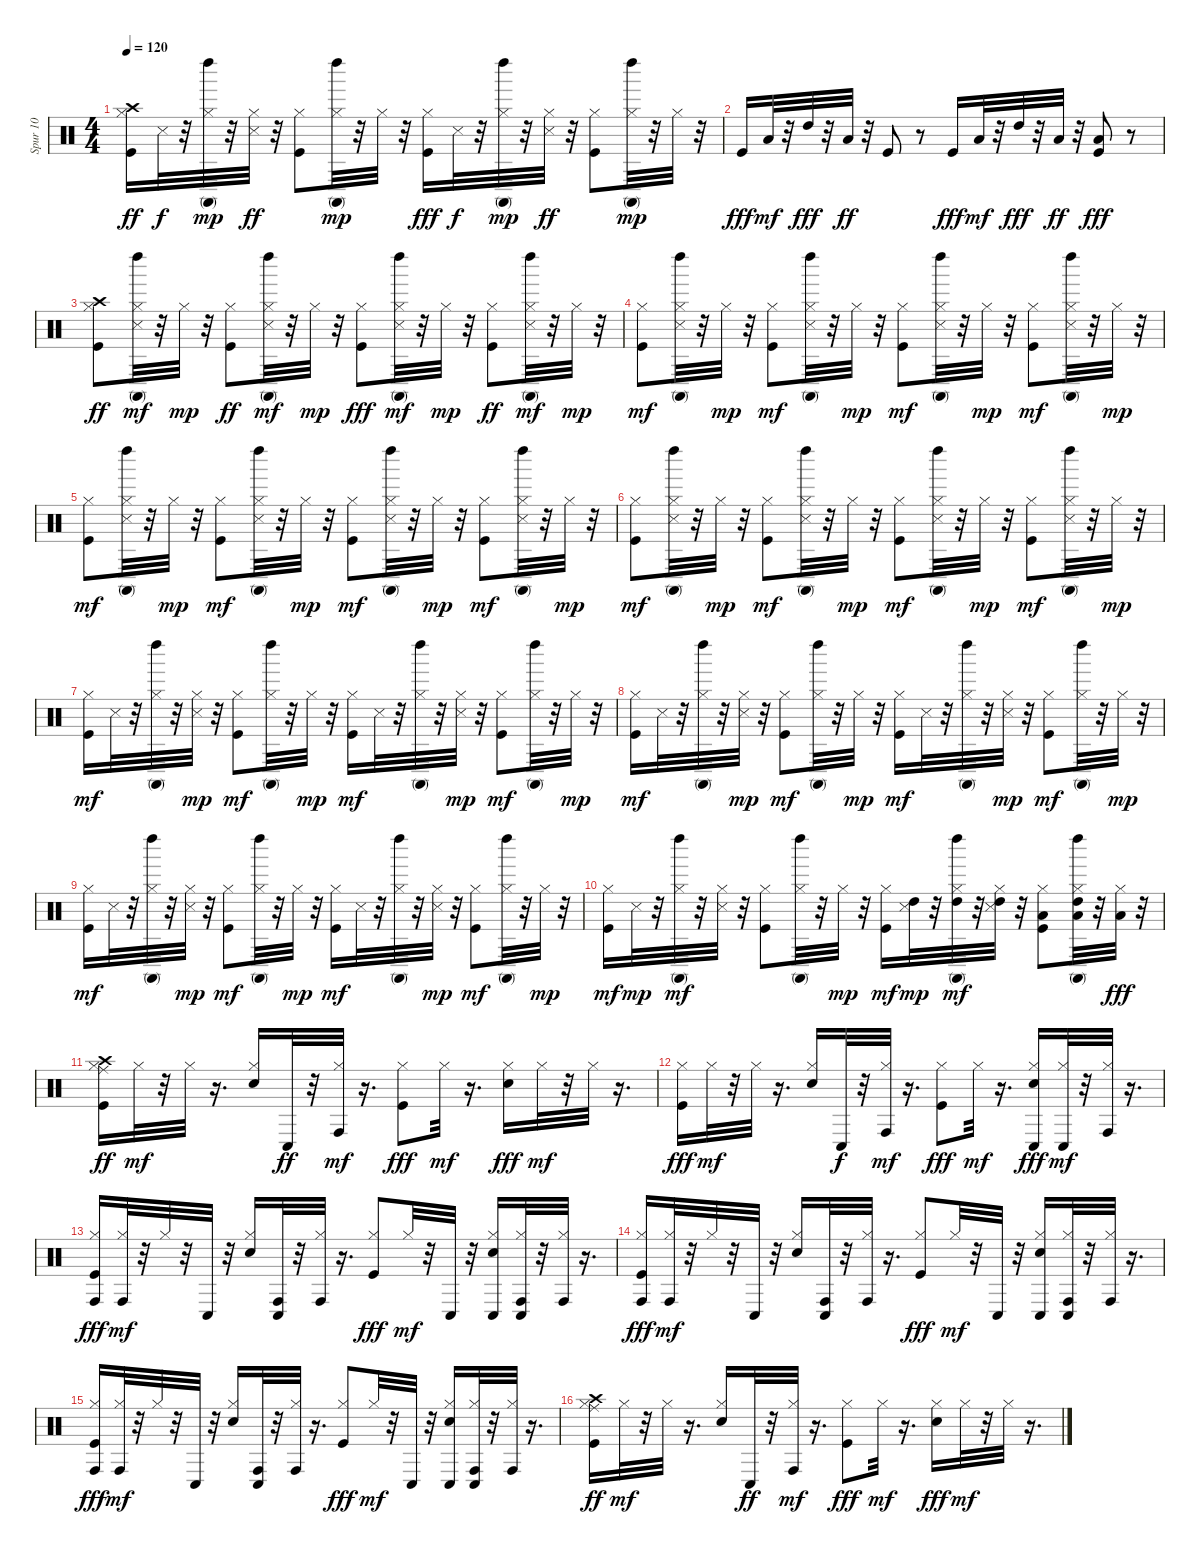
\track ("Spur 10" "Spur 10") {instrument percussion}
\staff {score}
\articulation defaults
\ts (4 4)
\tempo 120
\clef neutral
\ks c
("Kick (hit)" "Hi-Hat (closed)" "Crash high (hit)").16{dy ff} "Snare (side stick) 3".32{dy f} r.32 ("Hi-Hat (closed)" "Conga high (mute)" "Left Maraca (hit)").32{dy mp} r.32 ("Hi-Hat (closed)" "Snare (side stick) 3").32{dy ff} r.32 ("Kick (hit)" "Hi-Hat (closed)").8 ("Hi-Hat (closed)" "Conga high (mute)" "Left Maraca (hit)").32{dy mp} r.32 "Hi-Hat (closed)".32 r.32 ("Kick (hit)" "Hi-Hat (closed)").16{dy fff} "Snare (side stick) 3".32{dy f} r.32 ("Hi-Hat (closed)" "Conga high (mute)" "Left Maraca (hit)").32{dy mp} r.32 ("Hi-Hat (closed)" "Snare (side stick) 3").32{dy ff} r.32 ("Kick (hit)" "Hi-Hat (closed)").8 ("Hi-Hat (closed)" "Conga high (mute)" "Left Maraca (hit)").32{dy mp} r.32 "Hi-Hat (closed)".32 r.32 |
"Kick (hit)".16{dy fff} "Low Tom (hit)".32{dy mf} r.32 "High Tom (hit)".32{dy fff} r.32 "Low Tom (hit)".32{dy ff} r.32 "Kick (hit)".8 r.8 "Kick (hit)".16{dy fff} "Low Tom (hit)".32{dy mf} r.32 "High Tom (hit)".32{dy fff} r.32 "Low Tom (hit)".32{dy ff} r.32 ("Kick (hit)" "Low Floor Tom (hit)").8{dy fff} r.8 |
("Kick (hit)" "Hi-Hat (closed)" "Crash high (hit)").8{dy ff} ("Hi-Hat (closed)" "Snare (side stick) 3" "Conga high (mute)" "Left Maraca (hit)").32{dy mf} r.32 "Hi-Hat (closed)".32{dy mp} r.32 ("Kick (hit)" "Hi-Hat (closed)").8{dy ff} ("Hi-Hat (closed)" "Snare (side stick) 3" "Conga high (mute)" "Left Maraca (hit)").32{dy mf} r.32 "Hi-Hat (closed)".32{dy mp} r.32 ("Kick (hit)" "Hi-Hat (closed)").8{dy fff} ("Hi-Hat (closed)" "Snare (side stick) 3" "Conga high (mute)" "Left Maraca (hit)").32{dy mf} r.32 "Hi-Hat (closed)".32{dy mp} r.32 ("Kick (hit)" "Hi-Hat (closed)").8{dy ff} ("Hi-Hat (closed)" "Snare (side stick) 3" "Conga high (mute)" "Left Maraca (hit)").32{dy mf} r.32 "Hi-Hat (closed)".32{dy mp} r.32 |
("Kick (hit)" "Hi-Hat (closed)").8{dy mf} ("Hi-Hat (closed)" "Snare (side stick) 3" "Conga high (mute)" "Left Maraca (hit)").32 r.32 "Hi-Hat (closed)".32{dy mp} r.32 ("Kick (hit)" "Hi-Hat (closed)").8{dy mf} ("Hi-Hat (closed)" "Snare (side stick) 3" "Conga high (mute)" "Left Maraca (hit)").32 r.32 "Hi-Hat (closed)".32{dy mp} r.32 ("Kick (hit)" "Hi-Hat (closed)").8{dy mf} ("Hi-Hat (closed)" "Snare (side stick) 3" "Conga high (mute)" "Left Maraca (hit)").32 r.32 "Hi-Hat (closed)".32{dy mp} r.32 ("Kick (hit)" "Hi-Hat (closed)").8{dy mf} ("Hi-Hat (closed)" "Snare (side stick) 3" "Conga high (mute)" "Left Maraca (hit)").32 r.32 "Hi-Hat (closed)".32{dy mp} r.32 |
("Kick (hit)" "Hi-Hat (closed)").8{dy mf} ("Hi-Hat (closed)" "Snare (side stick) 3" "Conga high (mute)" "Left Maraca (hit)").32 r.32 "Hi-Hat (closed)".32{dy mp} r.32 ("Kick (hit)" "Hi-Hat (closed)").8{dy mf} ("Hi-Hat (closed)" "Snare (side stick) 3" "Conga high (mute)" "Left Maraca (hit)").32 r.32 "Hi-Hat (closed)".32{dy mp} r.32 ("Kick (hit)" "Hi-Hat (closed)").8{dy mf} ("Hi-Hat (closed)" "Snare (side stick) 3" "Conga high (mute)" "Left Maraca (hit)").32 r.32 "Hi-Hat (closed)".32{dy mp} r.32 ("Kick (hit)" "Hi-Hat (closed)").8{dy mf} ("Hi-Hat (closed)" "Snare (side stick) 3" "Conga high (mute)" "Left Maraca (hit)").32 r.32 "Hi-Hat (closed)".32{dy mp} r.32 |
("Kick (hit)" "Hi-Hat (closed)").8{dy mf} ("Hi-Hat (closed)" "Snare (side stick) 3" "Conga high (mute)" "Left Maraca (hit)").32 r.32 "Hi-Hat (closed)".32{dy mp} r.32 ("Kick (hit)" "Hi-Hat (closed)").8{dy mf} ("Hi-Hat (closed)" "Snare (side stick) 3" "Conga high (mute)" "Left Maraca (hit)").32 r.32 "Hi-Hat (closed)".32{dy mp} r.32 ("Kick (hit)" "Hi-Hat (closed)").8{dy mf} ("Hi-Hat (closed)" "Snare (side stick) 3" "Conga high (mute)" "Left Maraca (hit)").32 r.32 "Hi-Hat (closed)".32{dy mp} r.32 ("Kick (hit)" "Hi-Hat (closed)").8{dy mf} ("Hi-Hat (closed)" "Snare (side stick) 3" "Conga high (mute)" "Left Maraca (hit)").32 r.32 "Hi-Hat (closed)".32{dy mp} r.32 |
("Kick (hit)" "Hi-Hat (closed)").16{dy mf} "Snare (side stick) 3".32 r.32 ("Hi-Hat (closed)" "Conga high (mute)" "Left Maraca (hit)").32 r.32 ("Hi-Hat (closed)" "Snare (side stick) 3").32{dy mp} r.32 ("Kick (hit)" "Hi-Hat (closed)").8{dy mf} ("Hi-Hat (closed)" "Conga high (mute)" "Left Maraca (hit)").32 r.32 "Hi-Hat (closed)".32{dy mp} r.32 ("Kick (hit)" "Hi-Hat (closed)").16{dy mf} "Snare (side stick) 3".32 r.32 ("Hi-Hat (closed)" "Conga high (mute)" "Left Maraca (hit)").32 r.32 ("Hi-Hat (closed)" "Snare (side stick) 3").32{dy mp} r.32 ("Kick (hit)" "Hi-Hat (closed)").8{dy mf} ("Hi-Hat (closed)" "Conga high (mute)" "Left Maraca (hit)").32 r.32 "Hi-Hat (closed)".32{dy mp} r.32 |
("Kick (hit)" "Hi-Hat (closed)").16{dy mf} "Snare (side stick) 3".32 r.32 ("Hi-Hat (closed)" "Conga high (mute)" "Left Maraca (hit)").32 r.32 ("Hi-Hat (closed)" "Snare (side stick) 3").32{dy mp} r.32 ("Kick (hit)" "Hi-Hat (closed)").8{dy mf} ("Hi-Hat (closed)" "Conga high (mute)" "Left Maraca (hit)").32 r.32 "Hi-Hat (closed)".32{dy mp} r.32 ("Kick (hit)" "Hi-Hat (closed)").16{dy mf} "Snare (side stick) 3".32 r.32 ("Hi-Hat (closed)" "Conga high (mute)" "Left Maraca (hit)").32 r.32 ("Hi-Hat (closed)" "Snare (side stick) 3").32{dy mp} r.32 ("Kick (hit)" "Hi-Hat (closed)").8{dy mf} ("Hi-Hat (closed)" "Conga high (mute)" "Left Maraca (hit)").32 r.32 "Hi-Hat (closed)".32{dy mp} r.32 |
("Kick (hit)" "Hi-Hat (closed)").16{dy mf} "Snare (side stick) 3".32 r.32 ("Hi-Hat (closed)" "Conga high (mute)" "Left Maraca (hit)").32 r.32 ("Hi-Hat (closed)" "Snare (side stick) 3").32{dy mp} r.32 ("Kick (hit)" "Hi-Hat (closed)").8{dy mf} ("Hi-Hat (closed)" "Conga high (mute)" "Left Maraca (hit)").32 r.32 "Hi-Hat (closed)".32{dy mp} r.32 ("Kick (hit)" "Hi-Hat (closed)").16{dy mf} "Snare (side stick) 3".32 r.32 ("Hi-Hat (closed)" "Conga high (mute)" "Left Maraca (hit)").32 r.32 ("Hi-Hat (closed)" "Snare (side stick) 3").32{dy mp} r.32 ("Kick (hit)" "Hi-Hat (closed)").8{dy mf} ("Hi-Hat (closed)" "Conga high (mute)" "Left Maraca (hit)").32 r.32 "Hi-Hat (closed)".32{dy mp} r.32 |
("Kick (hit)" "Hi-Hat (closed)").16{dy mf} "Snare (side stick) 3".32{dy mp} r.32 ("Hi-Hat (closed)" "Conga high (mute)" "Left Maraca (hit)").32{dy mf} r.32 ("Hi-Hat (closed)" "Snare (side stick) 3").32 r.32 ("Kick (hit)" "Hi-Hat (closed)").8 ("Hi-Hat (closed)" "Conga high (mute)" "Left Maraca (hit)").32 r.32 "Hi-Hat (closed)".32{dy mp} r.32 ("Kick (hit)" "Hi-Hat (closed)").16{dy mf} ("High Tom (hit)" "Snare (side stick) 3").32{dy mp} r.32 ("Hi-Hat (closed)" "High Tom (hit)" "Conga high (mute)" "Left Maraca (hit)").32{dy mf} r.32 ("Hi-Hat (closed)" "High Tom (hit)" "Snare (side stick) 3").32 r.32 ("Kick (hit)" "Hi-Hat (closed)" "Low Tom (hit)").8 ("Hi-Hat (closed)" "High Tom (hit)" "Low Tom (hit)" "Conga high (mute)" "Left Maraca (hit)").32 r.32 ("Hi-Hat (closed)" "Low Tom (hit)").32{dy fff} r.32 |
("Kick (hit)" "Hi-Hat (closed)" "Ride (middle)" "Crash high (hit)").16{dy ff} "Hi-Hat (closed)".32{dy mf} r.32 "Hi-Hat (closed)".32 r.16{d} ("Snare (hit) 2" "Hi-Hat (closed)").16 "Conga low (hit)".32{dy ff} r.32 ("Hi-Hat (closed)" "Conga high (hit)").32{dy mf} r.16{d} ("Kick (hit)" "Hi-Hat (closed)").8{dy fff} "Hi-Hat (closed)".32{dy mf} r.16{d} ("Snare (hit) 2" "Hi-Hat (closed)").16{dy fff} "Hi-Hat (closed)".32{dy mf} r.32 "Hi-Hat (closed)".32 r.16{d} |
("Kick (hit)" "Hi-Hat (closed)").16{dy fff} "Hi-Hat (closed)".32{dy mf} r.32 "Hi-Hat (closed)".32 r.16{d} ("Snare (hit) 2" "Hi-Hat (closed)").16 "Conga low (hit)".32{dy f} r.32 ("Hi-Hat (closed)" "Conga high (hit)").32{dy mf} r.16{d} ("Kick (hit)" "Hi-Hat (closed)").8{dy fff} "Hi-Hat (closed)".32{dy mf} r.16{d} ("Snare (hit) 2" "Hi-Hat (closed)" "Conga low (hit)").16{dy fff} ("Hi-Hat (closed)" "Conga low (hit)").32{dy mf} r.32 ("Hi-Hat (closed)" "Conga high (hit)").32 r.16{d} |
("Kick (hit)" "Hi-Hat (closed)" "Conga high (hit)").16{dy fff} ("Hi-Hat (closed)" "Conga high (hit)").32{dy mf} r.32 "Hi-Hat (closed)".32 r.32 "Conga low (hit)".32 r.32 ("Snare (hit) 2" "Hi-Hat (closed)").16 ("Conga high (hit)" "Conga low (hit)").32 r.32 ("Hi-Hat (closed)" "Conga high (hit)").32 r.16{d} ("Kick (hit)" "Hi-Hat (closed)").8{dy fff} "Hi-Hat (closed)".32{dy mf} r.32 "Conga low (hit)".32 r.32 ("Snare (hit) 2" "Hi-Hat (closed)" "Conga low (hit)").16 ("Hi-Hat (closed)" "Conga high (hit)" "Conga low (hit)").32 r.32 ("Hi-Hat (closed)" "Conga high (hit)").32 r.16{d} |
("Kick (hit)" "Hi-Hat (closed)" "Conga high (hit)").16{dy fff} ("Hi-Hat (closed)" "Conga high (hit)").32{dy mf} r.32 "Hi-Hat (closed)".32 r.32 "Conga low (hit)".32 r.32 ("Snare (hit) 2" "Hi-Hat (closed)").16 ("Conga high (hit)" "Conga low (hit)").32 r.32 ("Hi-Hat (closed)" "Conga high (hit)").32 r.16{d} ("Kick (hit)" "Hi-Hat (closed)").8{dy fff} "Hi-Hat (closed)".32{dy mf} r.32 "Conga low (hit)".32 r.32 ("Snare (hit) 2" "Hi-Hat (closed)" "Conga low (hit)").16 ("Hi-Hat (closed)" "Conga high (hit)" "Conga low (hit)").32 r.32 ("Hi-Hat (closed)" "Conga high (hit)").32 r.16{d} |
("Kick (hit)" "Hi-Hat (closed)" "Conga high (hit)").16{dy fff} ("Hi-Hat (closed)" "Conga high (hit)").32{dy mf} r.32 "Hi-Hat (closed)".32 r.32 "Conga low (hit)".32 r.32 ("Snare (hit) 2" "Hi-Hat (closed)").16 ("Conga high (hit)" "Conga low (hit)").32 r.32 ("Hi-Hat (closed)" "Conga high (hit)").32 r.16{d} ("Kick (hit)" "Hi-Hat (closed)").8{dy fff} "Hi-Hat (closed)".32{dy mf} r.32 "Conga low (hit)".32 r.32 ("Snare (hit) 2" "Hi-Hat (closed)" "Conga low (hit)").16 ("Hi-Hat (closed)" "Conga high (hit)" "Conga low (hit)").32 r.32 ("Hi-Hat (closed)" "Conga high (hit)").32 r.16{d} |
("Kick (hit)" "Hi-Hat (closed)" "Ride (middle)" "Crash high (hit)").16{dy ff} "Hi-Hat (closed)".32{dy mf} r.32 "Hi-Hat (closed)".32 r.16{d} ("Snare (hit) 2" "Hi-Hat (closed)").16 "Conga low (hit)".32{dy ff} r.32 ("Hi-Hat (closed)" "Conga high (hit)").32{dy mf} r.16{d} ("Kick (hit)" "Hi-Hat (closed)").8{dy fff} "Hi-Hat (closed)".32{dy mf} r.16{d} ("Snare (hit) 2" "Hi-Hat (closed)").16{dy fff} "Hi-Hat (closed)".32{dy mf} r.32 "Hi-Hat (closed)".32 r.16{d}
